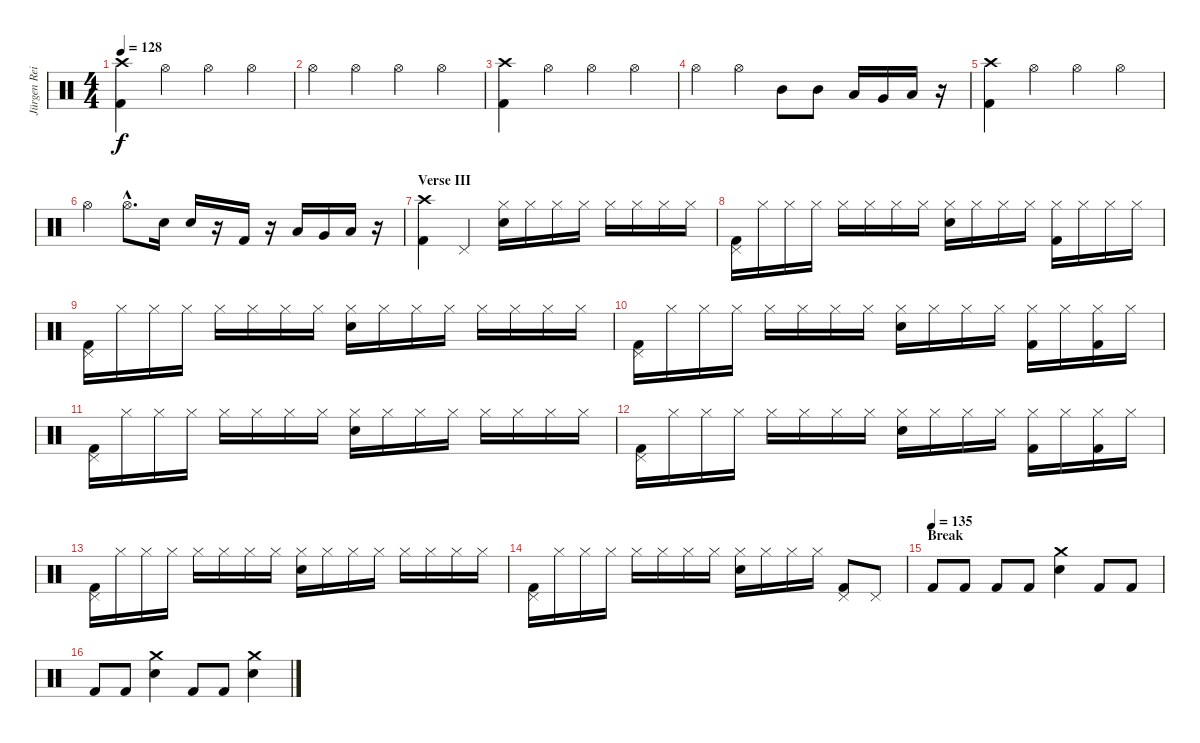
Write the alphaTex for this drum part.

\track ("Jürgen Reil [drums]" "Jürgen Rei") {instrument percussion}
\staff {score}
\articulation defaults
\ts (4 4)
\tempo 128
\clef neutral
\ks c
("Crash high (hit)" "Kick (hit) 2").4{dy f} "Hi-Hat (open)".4 "Hi-Hat (open)".4 "Hi-Hat (open)".4 |
"Hi-Hat (open)".4 "Hi-Hat (open)".4 "Hi-Hat (open)".4 "Hi-Hat (open)".4 |
("Crash high (hit)" "Kick (hit) 2").4 "Hi-Hat (open)".4 "Hi-Hat (open)".4 "Hi-Hat (open)".4 |
"Hi-Hat (open)".4 "Hi-Hat (open)".4 "Mid Tom (hit)".8 "Mid Tom (hit)".8 "Low Tom (hit)".16 "Very Low Tom (hit)".16 "Low Floor Tom (hit)".16 r.16 |
("Crash high (hit)" "Kick (hit) 2").4 "Hi-Hat (open)".4 "Hi-Hat (open)".4 "Hi-Hat (open)".4 |
"Hi-Hat (open)".4 "Hi-Hat (open)"{hac}.8{d} "Electric Snare (hit)".16 "Electric Snare (hit)".16 r.16 "Kick (hit) 2".16 r.16 "Low Tom (hit)".16 "Very Low Tom (hit)".16 "Low Floor Tom (hit)".16 r.16 |
\section ("" "Verse III")
("Crash high (hit)" "Kick (hit) 2").4 "Pedal Hi-Hat (hit)".4 ("Hi-Hat (closed)" "Electric Snare (hit)").16 "Hi-Hat (closed)".16 "Hi-Hat (closed)".16 "Hi-Hat (closed)".16 "Hi-Hat (closed)".16 "Hi-Hat (closed)".16 "Hi-Hat (closed)".16 "Hi-Hat (closed)".16 |
("Pedal Hi-Hat (hit)" "Kick (hit) 2").16 "Hi-Hat (closed)".16 "Hi-Hat (closed)".16 "Hi-Hat (closed)".16 "Hi-Hat (closed)".16 "Hi-Hat (closed)".16 "Hi-Hat (closed)".16 "Hi-Hat (closed)".16 ("Hi-Hat (closed)" "Electric Snare (hit)").16 "Hi-Hat (closed)".16 "Hi-Hat (closed)".16 "Hi-Hat (closed)".16 ("Hi-Hat (closed)" "Kick (hit) 2").16 "Hi-Hat (closed)".16 "Hi-Hat (closed)".16 "Hi-Hat (closed)".16 |
("Pedal Hi-Hat (hit)" "Kick (hit) 2").16 "Hi-Hat (closed)".16 "Hi-Hat (closed)".16 "Hi-Hat (closed)".16 "Hi-Hat (closed)".16 "Hi-Hat (closed)".16 "Hi-Hat (closed)".16 "Hi-Hat (closed)".16 ("Hi-Hat (closed)" "Electric Snare (hit)").16 "Hi-Hat (closed)".16 "Hi-Hat (closed)".16 "Hi-Hat (closed)".16 "Hi-Hat (closed)".16 "Hi-Hat (closed)".16 "Hi-Hat (closed)".16 "Hi-Hat (closed)".16 |
("Pedal Hi-Hat (hit)" "Kick (hit) 2").16 "Hi-Hat (closed)".16 "Hi-Hat (closed)".16 "Hi-Hat (closed)".16 "Hi-Hat (closed)".16 "Hi-Hat (closed)".16 "Hi-Hat (closed)".16 "Hi-Hat (closed)".16 ("Hi-Hat (closed)" "Electric Snare (hit)").16 "Hi-Hat (closed)".16 "Hi-Hat (closed)".16 "Hi-Hat (closed)".16 ("Hi-Hat (closed)" "Kick (hit) 2").16 "Hi-Hat (closed)".16 ("Hi-Hat (closed)" "Kick (hit) 2").16 "Hi-Hat (closed)".16 |
("Pedal Hi-Hat (hit)" "Kick (hit) 2").16 "Hi-Hat (closed)".16 "Hi-Hat (closed)".16 "Hi-Hat (closed)".16 "Hi-Hat (closed)".16 "Hi-Hat (closed)".16 "Hi-Hat (closed)".16 "Hi-Hat (closed)".16 ("Hi-Hat (closed)" "Electric Snare (hit)").16 "Hi-Hat (closed)".16 "Hi-Hat (closed)".16 "Hi-Hat (closed)".16 "Hi-Hat (closed)".16 "Hi-Hat (closed)".16 "Hi-Hat (closed)".16 "Hi-Hat (closed)".16 |
("Pedal Hi-Hat (hit)" "Kick (hit) 2").16 "Hi-Hat (closed)".16 "Hi-Hat (closed)".16 "Hi-Hat (closed)".16 "Hi-Hat (closed)".16 "Hi-Hat (closed)".16 "Hi-Hat (closed)".16 "Hi-Hat (closed)".16 ("Hi-Hat (closed)" "Electric Snare (hit)").16 "Hi-Hat (closed)".16 "Hi-Hat (closed)".16 "Hi-Hat (closed)".16 ("Hi-Hat (closed)" "Kick (hit) 2").16 "Hi-Hat (closed)".16 ("Hi-Hat (closed)" "Kick (hit) 2").16 "Hi-Hat (closed)".16 |
("Pedal Hi-Hat (hit)" "Kick (hit) 2").16 "Hi-Hat (closed)".16 "Hi-Hat (closed)".16 "Hi-Hat (closed)".16 "Hi-Hat (closed)".16 "Hi-Hat (closed)".16 "Hi-Hat (closed)".16 "Hi-Hat (closed)".16 ("Hi-Hat (closed)" "Electric Snare (hit)").16 "Hi-Hat (closed)".16 "Hi-Hat (closed)".16 "Hi-Hat (closed)".16 "Hi-Hat (closed)".16 "Hi-Hat (closed)".16 "Hi-Hat (closed)".16 "Hi-Hat (closed)".16 |
("Pedal Hi-Hat (hit)" "Kick (hit) 2").16 "Hi-Hat (closed)".16 "Hi-Hat (closed)".16 "Hi-Hat (closed)".16 "Hi-Hat (closed)".16 "Hi-Hat (closed)".16 "Hi-Hat (closed)".16 "Hi-Hat (closed)".16 ("Hi-Hat (closed)" "Electric Snare (hit)").16 "Hi-Hat (closed)".16 "Hi-Hat (closed)".16 "Hi-Hat (closed)".16 ("Pedal Hi-Hat (hit)" "Kick (hit) 2").8 "Pedal Hi-Hat (hit)".8 |
\section ("" "Break")
\tempo (135)
"Kick (hit) 2".8 "Kick (hit) 2".8 "Kick (hit) 2".8 "Kick (hit) 2".8 ("Crash medium (hit)" "Electric Snare (hit)").4 "Kick (hit) 2".8 "Kick (hit) 2".8 |
"Kick (hit) 2".8 "Kick (hit) 2".8 ("Crash medium (hit)" "Electric Snare (hit)").4 "Kick (hit) 2".8 "Kick (hit) 2".8 ("Crash medium (hit)" "Electric Snare (hit)").4
